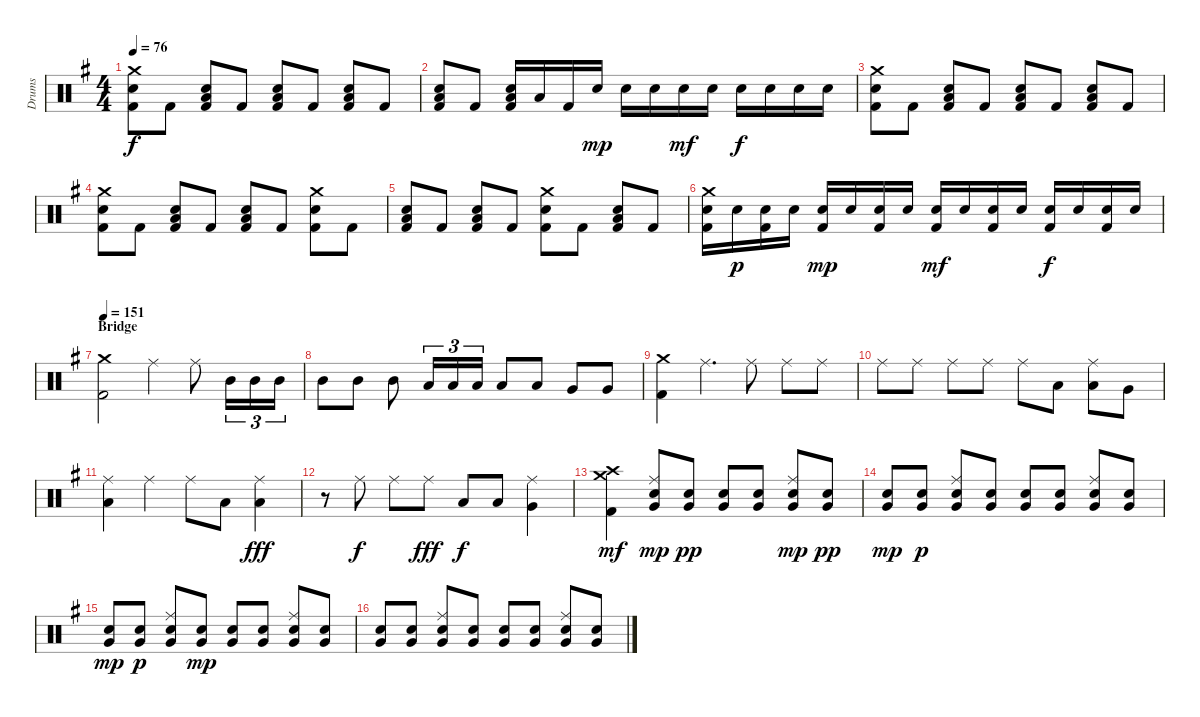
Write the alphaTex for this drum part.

\track ("Drums " "Drums ") {instrument percussion}
\staff {score}
\articulation defaults
\ts (4 4)
\tempo 76
\clef neutral
\ks eminor
("Crash medium (hit)" "Snare (hit) 2" "Kick (hit) 2").8{dy f} "Kick (hit) 2".8 ("Snare (hit) 2" "Low Floor Tom (hit)" "Kick (hit) 2").8 "Kick (hit) 2".8 ("Snare (hit) 2" "Low Floor Tom (hit)" "Kick (hit) 2").8 "Kick (hit) 2".8 ("Snare (hit) 2" "Low Floor Tom (hit)" "Kick (hit) 2").8 "Kick (hit) 2".8 |
("Snare (hit) 2" "Low Floor Tom (hit)" "Kick (hit) 2").8 "Kick (hit) 2".8 ("Snare (hit) 2" "Low Floor Tom (hit)" "Kick (hit) 2").16 "Low Floor Tom (hit)".16 "Kick (hit) 2".16 "Snare (hit) 2".16{dy mp} "Snare (hit) 2".16 "Snare (hit) 2".16 "Snare (hit) 2".16{dy mf} "Snare (hit) 2".16 "Snare (hit) 2".16{dy f} "Snare (hit) 2".16 "Snare (hit) 2".16 "Snare (hit) 2".16 |
("Crash medium (hit)" "Snare (hit) 2" "Kick (hit) 2").8 "Kick (hit) 2".8 ("Snare (hit) 2" "Low Floor Tom (hit)" "Kick (hit) 2").8 "Kick (hit) 2".8 ("Snare (hit) 2" "Low Floor Tom (hit)" "Kick (hit) 2").8 "Kick (hit) 2".8 ("Snare (hit) 2" "Low Floor Tom (hit)" "Kick (hit) 2").8 "Kick (hit) 2".8 |
("Crash medium (hit)" "Snare (hit) 2" "Kick (hit) 2").8 "Kick (hit) 2".8 ("Snare (hit) 2" "Low Floor Tom (hit)" "Kick (hit) 2").8 "Kick (hit) 2".8 ("Snare (hit) 2" "Low Floor Tom (hit)" "Kick (hit) 2").8 "Kick (hit) 2".8 ("Crash medium (hit)" "Snare (hit) 2" "Kick (hit) 2").8 "Kick (hit) 2".8 |
("Snare (hit) 2" "Low Floor Tom (hit)" "Kick (hit) 2").8 "Kick (hit) 2".8 ("Snare (hit) 2" "Low Floor Tom (hit)" "Kick (hit) 2").8 "Kick (hit) 2".8 ("Crash medium (hit)" "Snare (hit) 2" "Kick (hit) 2").8 "Kick (hit) 2".8 ("Snare (hit) 2" "Low Floor Tom (hit)" "Kick (hit) 2").8 "Kick (hit) 2".8 |
("Crash medium (hit)" "Snare (hit) 2" "Kick (hit) 2").16 "Snare (hit) 2".16{dy p} ("Snare (hit) 2" "Kick (hit) 2").16 "Snare (hit) 2".16 ("Snare (hit) 2" "Kick (hit) 2").16{dy mp} "Snare (hit) 2".16 ("Snare (hit) 2" "Kick (hit) 2").16 "Snare (hit) 2".16 ("Snare (hit) 2" "Kick (hit) 2").16{dy mf} "Snare (hit) 2".16 ("Snare (hit) 2" "Kick (hit) 2").16 "Snare (hit) 2".16 ("Snare (hit) 2" "Kick (hit) 2").16{dy f} "Snare (hit) 2".16 ("Snare (hit) 2" "Kick (hit) 2").16 "Snare (hit) 2".16 |
\section ("" "Bridge")
\tempo 151
("Crash medium (hit)" "Kick (hit) 2").2 "Ride (middle)".4 "Ride (middle)".8 "Mid Tom (hit)".16{tu (3 2)} "Mid Tom (hit)".16{tu (3 2)} "Mid Tom (hit)".16{tu (3 2)} |
"Mid Tom (hit)".8 "Mid Tom (hit)".8 "Mid Tom (hit)".8 "Low Tom (hit)".16{tu (3 2)} "Low Tom (hit)".16{tu (3 2)} "Low Tom (hit)".16{tu (3 2)} "Low Tom (hit)".8 "Low Tom (hit)".8 "Very Low Tom (hit)".8 "Very Low Tom (hit)".8 |
("Crash medium (hit)" "Kick (hit) 2").4 "Ride (middle)".4{d} "Ride (middle)".8 "Ride (middle)".8 "Ride (middle)".8 |
"Ride (middle)".8 "Ride (middle)".8 "Ride (middle)".8 "Ride (middle)".8 "Ride (middle)".8 "Low Tom (hit)".8 ("Ride (middle)" "Low Tom (hit)").8 "Very Low Tom (hit)".8 |
("Ride (middle)" "Low Floor Tom (hit)").4 "Ride (middle)".4 "Ride (middle)".8 "Low Tom (hit)".8 ("Ride (middle)" "Low Tom (hit)").4{dy fff} |
r.8 "Ride (middle)".8{dy f} "Ride (middle)".8 "Ride (middle)".8{dy fff} "Low Tom (hit)".8{dy f} "Low Tom (hit)".8 ("Ride (middle)" "Very Low Tom (hit)").4 |
("Crash medium (hit)" "Crash high (hit)" "Kick (hit) 2").4{dy mf} ("Ride (middle)" "Snare (hit) 2" "Very Low Tom (hit)").8{dy mp} ("Snare (hit) 2" "Very Low Tom (hit)").8{dy pp} ("Snare (hit) 2" "Very Low Tom (hit)").8 ("Snare (hit) 2" "Very Low Tom (hit)").8 ("Ride (middle)" "Snare (hit) 2" "Very Low Tom (hit)").8{dy mp} ("Snare (hit) 2" "Very Low Tom (hit)").8{dy pp} |
("Snare (hit) 2" "Very Low Tom (hit)").8{dy mp} ("Snare (hit) 2" "Very Low Tom (hit)").8{dy p} ("Ride (middle)" "Snare (hit) 2" "Very Low Tom (hit)").8 ("Snare (hit) 2" "Very Low Tom (hit)").8 ("Snare (hit) 2" "Very Low Tom (hit)").8 ("Snare (hit) 2" "Very Low Tom (hit)").8 ("Ride (middle)" "Snare (hit) 2" "Very Low Tom (hit)").8 ("Snare (hit) 2" "Very Low Tom (hit)").8 |
("Snare (hit) 2" "Very Low Tom (hit)").8{dy mp} ("Snare (hit) 2" "Very Low Tom (hit)").8{dy p} ("Ride (middle)" "Snare (hit) 2" "Very Low Tom (hit)").8 ("Snare (hit) 2" "Very Low Tom (hit)").8{dy mp} ("Snare (hit) 2" "Very Low Tom (hit)").8 ("Snare (hit) 2" "Very Low Tom (hit)").8 ("Ride (middle)" "Snare (hit) 2" "Very Low Tom (hit)").8 ("Snare (hit) 2" "Very Low Tom (hit)").8 |
("Snare (hit) 2" "Very Low Tom (hit)").8 ("Snare (hit) 2" "Very Low Tom (hit)").8 ("Ride (middle)" "Snare (hit) 2" "Very Low Tom (hit)").8 ("Snare (hit) 2" "Very Low Tom (hit)").8 ("Snare (hit) 2" "Very Low Tom (hit)").8 ("Snare (hit) 2" "Very Low Tom (hit)").8 ("Ride (middle)" "Snare (hit) 2" "Very Low Tom (hit)").8 ("Snare (hit) 2" "Very Low Tom (hit)").8
